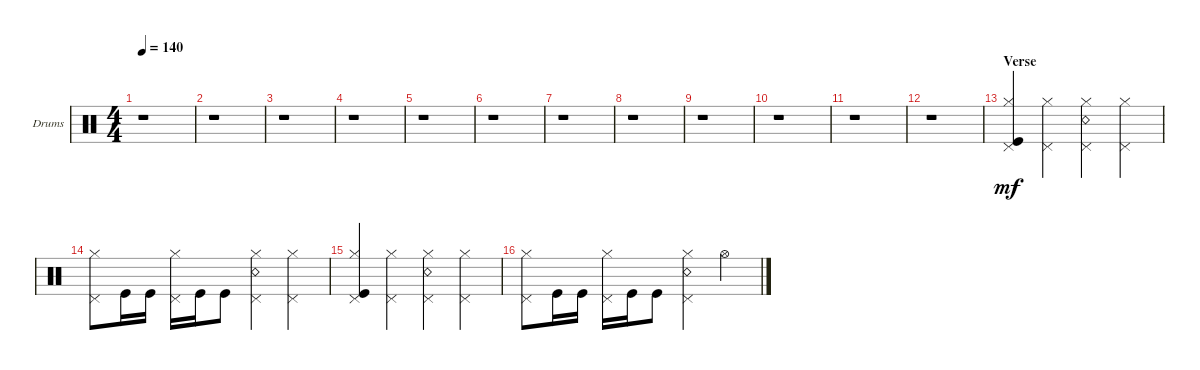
\bracketExtendMode groupsimilarinstruments
\firstSystemTrackNameOrientation horizontal
\otherSystemsTrackNameOrientation horizontal
\track ("Drumkit" "Drums") {instrument percussion}
\staff {score}
\articulation defaults
\ts (4 4)
\tempo 140
\clef neutral
\ks c
r.1{dy mf} |
r.1 |
r.1 |
r.1 |
r.1 |
r.1 |
r.1 |
r.1 |
r.1 |
r.1 |
r.1 |
r.1 |
\section ("" "Verse")
("Kick (hit)" "Hi-Hat (closed)" "Pedal Hi-Hat (hit)").4 ("Hi-Hat (closed)" "Pedal Hi-Hat (hit)").4 ("Hi-Hat (closed)" "Snare (rim shot)" "Pedal Hi-Hat (hit)").4 ("Hi-Hat (closed)" "Pedal Hi-Hat (hit)").4 |
("Hi-Hat (closed)" "Pedal Hi-Hat (hit)").8 "Kick (hit)".16 "Kick (hit)".16 ("Hi-Hat (closed)" "Pedal Hi-Hat (hit)").16 "Kick (hit)".16 "Kick (hit)".8 ("Snare (rim shot)" "Hi-Hat (closed)" "Pedal Hi-Hat (hit)").4 ("Hi-Hat (closed)" "Pedal Hi-Hat (hit)").4 |
("Kick (hit)" "Hi-Hat (closed)" "Pedal Hi-Hat (hit)").4 ("Hi-Hat (closed)" "Pedal Hi-Hat (hit)").4 ("Hi-Hat (closed)" "Snare (rim shot)" "Pedal Hi-Hat (hit)").4 ("Hi-Hat (closed)" "Pedal Hi-Hat (hit)").4 |
("Hi-Hat (closed)" "Pedal Hi-Hat (hit)").8 "Kick (hit)".16 "Kick (hit)".16 ("Hi-Hat (closed)" "Pedal Hi-Hat (hit)").16 "Kick (hit)".16 "Kick (hit)".8 ("Snare (rim shot)" "Hi-Hat (closed)" "Pedal Hi-Hat (hit)").4 "Hi-Hat (open)".4
